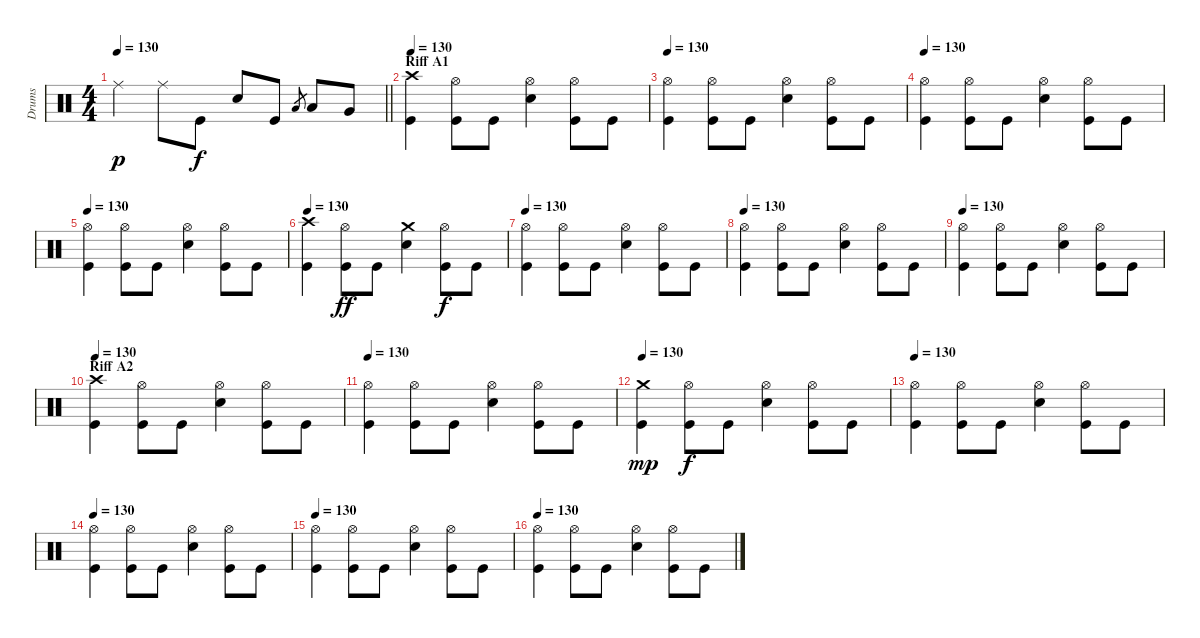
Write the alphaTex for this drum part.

\track ("Drums" "Drums") {instrument percussion}
\staff {score}
\articulation defaults
\ts (4 4)
\tempo 130
\clef neutral
\barLineRight lightlight
\ks c "Ride (middle)".4{dy p} "Ride (middle)".8 "Kick (hit)".8{dy f} "Snare (hit) 2".8 "Kick (hit)".8 "Low Tom (hit)".8{gr} "Low Tom (hit)".8 "Very Low Tom (hit)".8
|
\section ("" "Riff A1")
\tempo 130
("Crash high (hit)" "Kick (hit)").4 ("Hi-Hat (open)" "Kick (hit)").8 "Kick (hit)".8 ("Hi-Hat (open)" "Snare (hit) 2").4 ("Hi-Hat (open)" "Kick (hit)").8 "Kick (hit)".8 |
\tempo 130
("Hi-Hat (open)" "Kick (hit)").4 ("Hi-Hat (open)" "Kick (hit)").8 "Kick (hit)".8 ("Hi-Hat (open)" "Snare (hit) 2").4 ("Hi-Hat (open)" "Kick (hit)").8 "Kick (hit)".8 |
\tempo 130
("Hi-Hat (open)" "Kick (hit)").4 ("Hi-Hat (open)" "Kick (hit)").8 "Kick (hit)".8 ("Hi-Hat (open)" "Snare (hit) 2").4 ("Hi-Hat (open)" "Kick (hit)").8 "Kick (hit)".8 |
\tempo 130
("Hi-Hat (open)" "Kick (hit)").4 ("Hi-Hat (open)" "Kick (hit)").8 "Kick (hit)".8 ("Hi-Hat (open)" "Snare (hit) 2").4 ("Hi-Hat (open)" "Kick (hit)").8 "Kick (hit)".8 |
\tempo 130
("Crash high (hit)" "Kick (hit)").4 ("Hi-Hat (open)" "Kick (hit)").8{dy ff} "Kick (hit)".8 ("Crash medium (hit)" "Snare (hit) 2").4 ("Hi-Hat (open)" "Kick (hit)").8{dy f} "Kick (hit)".8 |
\tempo 130
("Hi-Hat (open)" "Kick (hit)").4 ("Hi-Hat (open)" "Kick (hit)").8 "Kick (hit)".8 ("Hi-Hat (open)" "Snare (hit) 2").4 ("Hi-Hat (open)" "Kick (hit)").8 "Kick (hit)".8 |
\tempo 130
("Hi-Hat (open)" "Kick (hit)").4 ("Hi-Hat (open)" "Kick (hit)").8 "Kick (hit)".8 ("Hi-Hat (open)" "Snare (hit) 2").4 ("Hi-Hat (open)" "Kick (hit)").8 "Kick (hit)".8 |
\tempo 130
("Hi-Hat (open)" "Kick (hit)").4 ("Hi-Hat (open)" "Kick (hit)").8 "Kick (hit)".8 ("Hi-Hat (open)" "Snare (hit) 2").4 ("Hi-Hat (open)" "Kick (hit)").8 "Kick (hit)".8 |
\section ("" "Riff A2")
\tempo 130
("Crash high (hit)" "Kick (hit)").4 ("Hi-Hat (open)" "Kick (hit)").8 "Kick (hit)".8 ("Hi-Hat (open)" "Snare (hit) 2").4 ("Hi-Hat (open)" "Kick (hit)").8 "Kick (hit)".8 |
\tempo 130
("Hi-Hat (open)" "Kick (hit)").4 ("Hi-Hat (open)" "Kick (hit)").8 "Kick (hit)".8 ("Hi-Hat (open)" "Snare (hit) 2").4 ("Hi-Hat (open)" "Kick (hit)").8 "Kick (hit)".8 |
\tempo 130
("Crash medium (hit)" "Kick (hit)").4{dy mp} ("Hi-Hat (open)" "Kick (hit)").8{dy f} "Kick (hit)".8 ("Hi-Hat (open)" "Snare (hit) 2").4 ("Hi-Hat (open)" "Kick (hit)").8 "Kick (hit)".8 |
\tempo 130
("Hi-Hat (open)" "Kick (hit)").4 ("Hi-Hat (open)" "Kick (hit)").8 "Kick (hit)".8 ("Hi-Hat (open)" "Snare (hit) 2").4 ("Hi-Hat (open)" "Kick (hit)").8 "Kick (hit)".8 |
\tempo 130
("Hi-Hat (open)" "Kick (hit)").4 ("Hi-Hat (open)" "Kick (hit)").8 "Kick (hit)".8 ("Hi-Hat (open)" "Snare (hit) 2").4 ("Hi-Hat (open)" "Kick (hit)").8 "Kick (hit)".8 |
\tempo 130
("Hi-Hat (open)" "Kick (hit)").4 ("Hi-Hat (open)" "Kick (hit)").8 "Kick (hit)".8 ("Hi-Hat (open)" "Snare (hit) 2").4 ("Hi-Hat (open)" "Kick (hit)").8 "Kick (hit)".8 |
\tempo 130
("Hi-Hat (open)" "Kick (hit)").4 ("Hi-Hat (open)" "Kick (hit)").8 "Kick (hit)".8 ("Hi-Hat (open)" "Snare (hit) 2").4 ("Hi-Hat (open)" "Kick (hit)").8 "Kick (hit)".8
